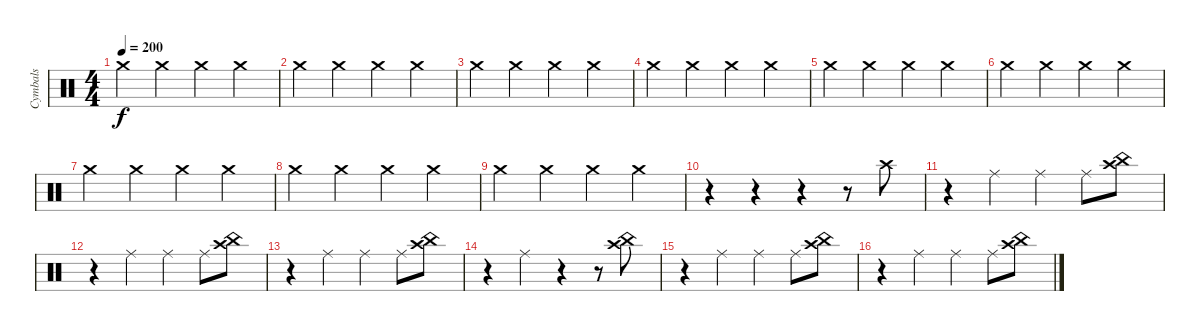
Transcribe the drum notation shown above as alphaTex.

\track ("Cymbals" "Cymbals") {instrument percussion}
\staff {score}
\articulation defaults
\ts (4 4)
\tempo 200
\clef neutral
\ks c "Crash medium (hit)".4{dy f} "Crash medium (hit)".4 "Crash medium (hit)".4 "Crash medium (hit)".4
|
"Crash medium (hit)".4 "Crash medium (hit)".4 "Crash medium (hit)".4 "Crash medium (hit)".4 |
"Crash medium (hit)".4 "Crash medium (hit)".4 "Crash medium (hit)".4 "Crash medium (hit)".4 |
"Crash medium (hit)".4 "Crash medium (hit)".4 "Crash medium (hit)".4 "Crash medium (hit)".4 |
"Crash medium (hit)".4 "Crash medium (hit)".4 "Crash medium (hit)".4 "Crash medium (hit)".4 |
"Crash medium (hit)".4 "Crash medium (hit)".4 "Crash medium (hit)".4 "Crash medium (hit)".4 |
"Crash medium (hit)".4 "Crash medium (hit)".4 "Crash medium (hit)".4 "Crash medium (hit)".4 |
"Crash medium (hit)".4 "Crash medium (hit)".4 "Crash medium (hit)".4 "Crash medium (hit)".4 |
"Crash medium (hit)".4 "Crash medium (hit)".4 "Crash medium (hit)".4 "Crash medium (hit)".4 |
r.4 r.4 r.4 r.8 "Crash high (hit)".8 |
r.4 "Ride (middle)".4 "Ride (middle)".4 "Ride (middle)".8 ("Crash high (hit)" "China (hit)").8 |
r.4 "Ride (middle)".4 "Ride (middle)".4 "Ride (middle)".8 ("Crash high (hit)" "China (hit)").8 |
r.4 "Ride (middle)".4 "Ride (middle)".4 "Ride (middle)".8 ("Crash high (hit)" "China (hit)").8 |
r.4 "Ride (middle)".4 r.4 r.8 ("Crash high (hit)" "China (hit)").8 |
r.4 "Ride (middle)".4 "Ride (middle)".4 "Ride (middle)".8 ("Crash high (hit)" "China (hit)").8 |
r.4 "Ride (middle)".4 "Ride (middle)".4 "Ride (middle)".8 ("Crash high (hit)" "China (hit)").8
